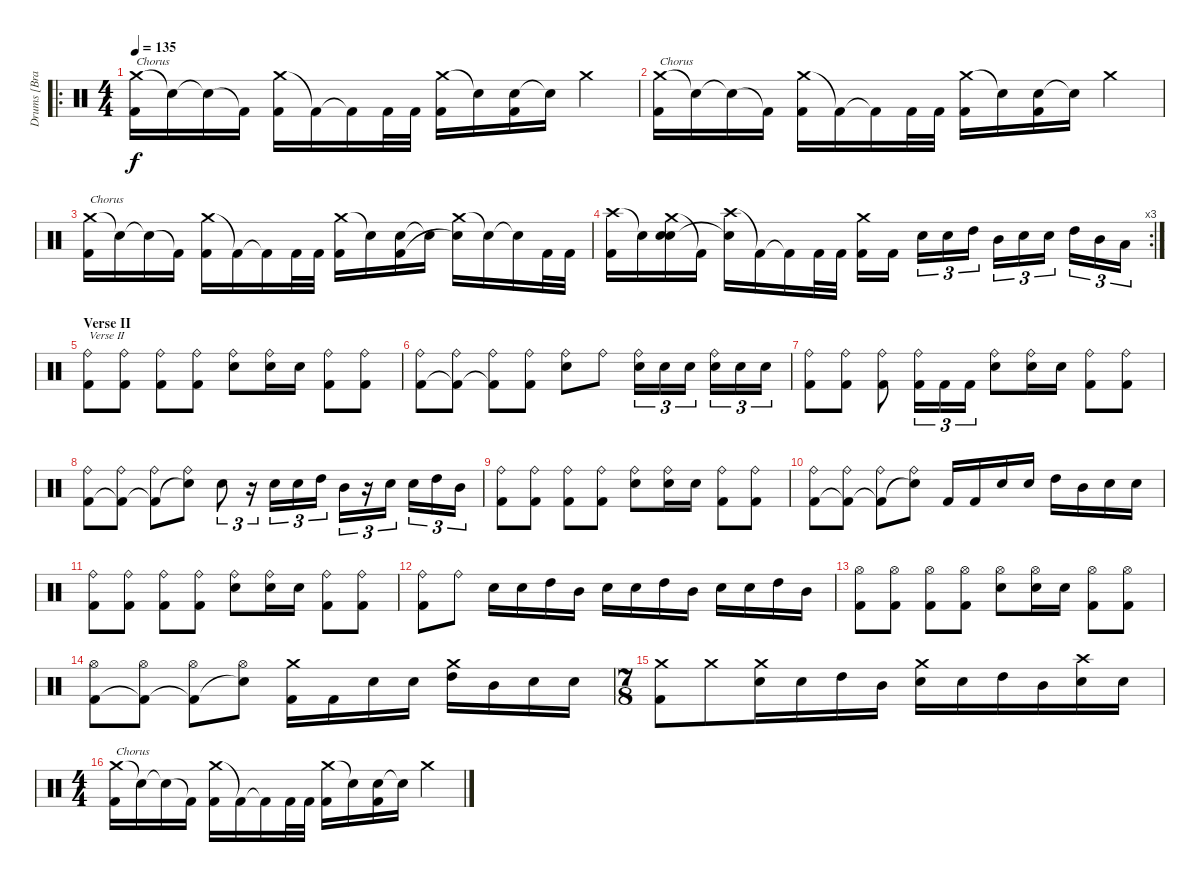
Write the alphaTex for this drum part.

\track ("Drums [Bran Dailor]" "Drums [Bra") {instrument percussion}
\staff {score}
\articulation defaults
\ro
\ts (4 4)
\tempo 135
\clef neutral
\ks c
("Crash medium (hit)" "Kick (hit) 2").16{txt "Chorus" dy f} "Snare (hit)"{t}.16 "Snare (hit)"{t}.16 "Kick (hit) 2"{t}.16 ("Crash medium (hit)" "Kick (hit) 2").16 "Kick (hit) 2"{t}.16 "Kick (hit) 2"{t}.16 "Kick (hit) 2".32 "Kick (hit) 2".32 ("Crash medium (hit)" "Kick (hit) 2").16 "Snare (hit)"{t}.16 ("Electric Snare (hit)" "Kick (hit) 2").16 "Snare (hit)"{t}.16 "Crash medium (hit)".4 |
("Crash medium (hit)" "Kick (hit) 2").16{txt "Chorus"} "Snare (hit)"{t}.16 "Snare (hit)"{t}.16 "Kick (hit) 2"{t}.16 ("Crash medium (hit)" "Kick (hit) 2").16 "Kick (hit) 2"{t}.16 "Kick (hit) 2"{t}.16 "Kick (hit) 2".32 "Kick (hit) 2".32 ("Crash medium (hit)" "Kick (hit) 2").16 "Snare (hit)"{t}.16 ("Electric Snare (hit)" "Kick (hit) 2").16 "Snare (hit)"{t}.16 "Crash medium (hit)".4 |
("Crash medium (hit)" "Kick (hit) 2").16{txt "Chorus"} "Snare (hit)"{t}.16 "Snare (hit)"{t}.16 "Kick (hit) 2"{t}.16 ("Crash medium (hit)" "Kick (hit) 2").16 "Kick (hit) 2"{t}.16 "Kick (hit) 2"{t}.16 "Kick (hit) 2".32 "Kick (hit) 2".32 ("Crash medium (hit)" "Kick (hit) 2").16 "Snare (hit)"{t}.16 ("Electric Snare (hit)" "Kick (hit) 2").16 "Snare (hit)"{t}.16 ("Crash medium (hit)" "Snare (hit)"{t}).16 "Snare (hit)"{t}.16 "Snare (hit)"{t}.16 "Kick (hit) 2".32 "Kick (hit) 2".32 |
\rc 3
("Crash high (hit)" "Kick (hit) 2").16 "Snare (hit)"{t}.16 ("Crash medium (hit)" "Electric Snare (hit)" "Snare (hit)").16 "Kick (hit) 2"{t}.16 ("Crash high (hit)" "Snare (hit)"{t}).16 "Kick (hit) 2"{t}.16 "Kick (hit) 2"{t}.16 "Kick (hit) 2".32 "Kick (hit) 2".32 ("Crash medium (hit)" "Kick (hit) 2").16 "Kick (hit) 2".16 "Electric Snare (hit)".16{tu (3 2)} "Electric Snare (hit)".16{tu (3 2)} "High Tom (hit)".16{tu (3 2)} "Mid Tom (hit)".16{tu (3 2)} "Electric Snare (hit)".16{tu (3 2)} "Electric Snare (hit)".16{tu (3 2)} "High Tom (hit)".16{tu (3 2)} "Mid Tom (hit)".16{tu (3 2)} "Low Tom (hit)".16{tu (3 2)} |
\section ("" "Verse II")
("Ride (bell)" "Kick (hit) 2").8{txt "Verse II"} ("Ride (bell)" "Kick (hit) 2").8 ("Ride (bell)" "Kick (hit) 2").8 ("Ride (bell)" "Kick (hit) 2").8 ("Ride (bell)" "Electric Snare (hit)").8 ("Ride (bell)" "Electric Snare (hit)").16 "Electric Snare (hit)".16 ("Ride (bell)" "Kick (hit) 2").8 ("Ride (bell)" "Kick (hit) 2").8 |
("Ride (bell)" "Kick (hit) 2").8 ("Ride (bell)" "Kick (hit) 2"{t}).8 ("Ride (bell)" "Kick (hit) 2"{t}).8 ("Ride (bell)" "Kick (hit) 2").8 ("Ride (bell)" "Electric Snare (hit)").8 "Ride (bell)".8 ("Ride (bell)" "Electric Snare (hit)").16{tu (3 2)} "Electric Snare (hit)".16{tu (3 2)} "Electric Snare (hit)".16{tu (3 2)} ("Ride (bell)" "Electric Snare (hit)").16{tu (3 2)} "Electric Snare (hit)".16{tu (3 2)} "Electric Snare (hit)".16{tu (3 2)} |
("Ride (bell)" "Kick (hit) 2").8 ("Ride (bell)" "Kick (hit) 2").8 ("Ride (bell)" "Kick (hit) 2").8 ("Ride (bell)" "Kick (hit) 2").16{tu (3 2)} "Kick (hit) 2".16{tu (3 2)} "Kick (hit) 2".16{tu (3 2)} ("Ride (bell)" "Electric Snare (hit)").8 ("Ride (bell)" "Electric Snare (hit)").16 "Electric Snare (hit)".16 ("Ride (bell)" "Kick (hit) 2").8 ("Ride (bell)" "Kick (hit) 2").8 |
("Ride (bell)" "Kick (hit) 2").8 ("Ride (bell)" "Kick (hit) 2"{t}).8 ("Ride (bell)" "Kick (hit) 2"{t}).8 ("Ride (bell)" "Snare (hit)"{t}).8 "Electric Snare (hit)".8{tu (3 2)} r.16{tu (3 2)} "Electric Snare (hit)".16{tu (3 2)} "Electric Snare (hit)".16{tu (3 2)} "High Tom (hit)".16{tu (3 2)} "Mid Tom (hit)".16{tu (3 2)} r.16{tu (3 2)} "Electric Snare (hit)".16{tu (3 2)} "Electric Snare (hit)".16{tu (3 2)} "High Tom (hit)".16{tu (3 2)} "Mid Tom (hit)".16{tu (3 2)} |
("Ride (bell)" "Kick (hit) 2").8 ("Ride (bell)" "Kick (hit) 2").8 ("Ride (bell)" "Kick (hit) 2").8 ("Ride (bell)" "Kick (hit) 2").8 ("Ride (bell)" "Electric Snare (hit)").8 ("Ride (bell)" "Electric Snare (hit)").16 "Electric Snare (hit)".16 ("Ride (bell)" "Kick (hit) 2").8 ("Ride (bell)" "Kick (hit) 2").8 |
("Ride (bell)" "Kick (hit) 2").8 ("Ride (bell)" "Kick (hit) 2"{t}).8 ("Ride (bell)" "Kick (hit) 2"{t}).8 ("Ride (bell)" "Snare (hit)"{t}).8 "Kick (hit) 2".16 "Kick (hit) 2".16 "Electric Snare (hit)".16 "Electric Snare (hit)".16 "High Tom (hit)".16 "Mid Tom (hit)".16 "Electric Snare (hit)".16 "Electric Snare (hit)".16 |
("Ride (bell)" "Kick (hit) 2").8 ("Ride (bell)" "Kick (hit) 2").8 ("Ride (bell)" "Kick (hit) 2").8 ("Ride (bell)" "Kick (hit) 2").8 ("Ride (bell)" "Electric Snare (hit)").8 ("Ride (bell)" "Electric Snare (hit)").16 "Electric Snare (hit)".16 ("Ride (bell)" "Kick (hit) 2").8 ("Ride (bell)" "Kick (hit) 2").8 |
("Ride (bell)" "Kick (hit) 2").8 "Ride (bell)".8 "Electric Snare (hit)".16 "Electric Snare (hit)".16 "High Tom (hit)".16 "Mid Tom (hit)".16 "Electric Snare (hit)".16 "Electric Snare (hit)".16 "High Tom (hit)".16 "Mid Tom (hit)".16 "Electric Snare (hit)".16 "Electric Snare (hit)".16 "High Tom (hit)".16 "Mid Tom (hit)".16 |
("Hi-Hat (open)" "Kick (hit) 2").8 ("Hi-Hat (open)" "Kick (hit) 2").8 ("Hi-Hat (open)" "Kick (hit) 2").8 ("Hi-Hat (open)" "Kick (hit) 2").8 ("Hi-Hat (open)" "Electric Snare (hit)").8 ("Hi-Hat (open)" "Electric Snare (hit)").16 "Electric Snare (hit)".16 ("Hi-Hat (open)" "Kick (hit) 2").8 ("Hi-Hat (open)" "Kick (hit) 2").8 |
("Hi-Hat (open)" "Kick (hit) 2").8 ("Hi-Hat (open)" "Kick (hit) 2"{t}).8 ("Hi-Hat (open)" "Kick (hit) 2"{t}).8 ("Hi-Hat (open)" "Snare (hit)"{t}).8 ("Crash medium (hit)" "Kick (hit) 2").16 "Kick (hit) 2".16 "Electric Snare (hit)".16 "Electric Snare (hit)".16 ("Crash medium (hit)" "High Tom (hit)").16 "Mid Tom (hit)".16 "Electric Snare (hit)".16 "Electric Snare (hit)".16 |
\ts (7 8)
("Crash medium (hit)" "Kick (hit) 2").8 "Crash medium (hit)".8 ("Crash medium (hit)" "Electric Snare (hit)").16 "Electric Snare (hit)".16 "High Tom (hit)".16 "Mid Tom (hit)".16 ("Crash medium (hit)" "Electric Snare (hit)").16 "Electric Snare (hit)".16 "High Tom (hit)".16 "Mid Tom (hit)".16 ("Crash high (hit)" "Electric Snare (hit)").16 "Electric Snare (hit)".16 |
\ts (4 4)
("Crash medium (hit)" "Kick (hit) 2").16{txt "Chorus"} "Snare (hit)"{t}.16 "Snare (hit)"{t}.16 "Kick (hit) 2"{t}.16 ("Crash medium (hit)" "Kick (hit) 2").16 "Kick (hit) 2"{t}.16 "Kick (hit) 2"{t}.16 "Kick (hit) 2".32 "Kick (hit) 2".32 ("Crash medium (hit)" "Kick (hit) 2").16 "Snare (hit)"{t}.16 ("Electric Snare (hit)" "Kick (hit) 2").16 "Snare (hit)"{t}.16 "Crash medium (hit)".4
